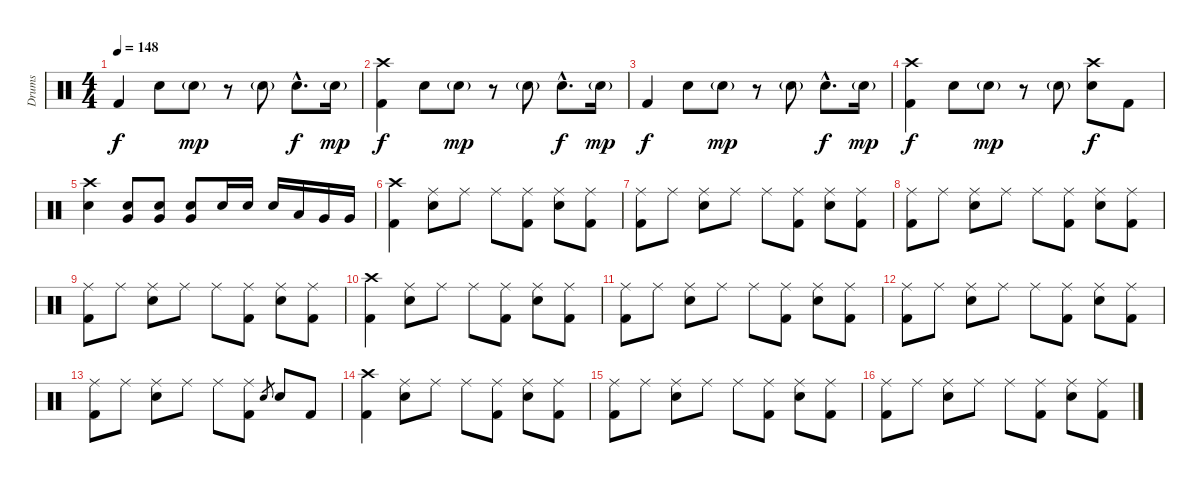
\track ("Drums" "Drums") {instrument percussion}
\staff {score}
\articulation defaults
\ts (4 4)
\tempo 148
\clef neutral
\ks c "Kick (hit) 2".4{dy f} "Electric Snare (hit)".8 "Electric Snare (hit)"{g}.8{dy mp}
r.8 "Electric Snare (hit)"{g}.8 "Electric Snare (hit)"{hac}.8{d dy f} "Electric Snare (hit)"{g}.16{dy mp} |
("Crash high (hit)" "Kick (hit) 2").4{dy f} "Electric Snare (hit)".8 "Electric Snare (hit)"{g}.8{dy mp} r.8 "Electric Snare (hit)"{g}.8 "Electric Snare (hit)"{hac}.8{d dy f} "Electric Snare (hit)"{g}.16{dy mp} |
"Kick (hit) 2".4{dy f} "Electric Snare (hit)".8 "Electric Snare (hit)"{g}.8{dy mp} r.8 "Electric Snare (hit)"{g}.8 "Electric Snare (hit)"{hac}.8{d dy f} "Electric Snare (hit)"{g}.16{dy mp} |
("Crash high (hit)" "Kick (hit) 2").4{dy f} "Electric Snare (hit)".8 "Electric Snare (hit)"{g}.8{dy mp} r.8 "Electric Snare (hit)"{g}.8 ("Crash high (hit)" "Electric Snare (hit)").8{dy f} "Kick (hit) 2".8 |
("Crash high (hit)" "Electric Snare (hit)").4 ("Very Low Tom (hit)" "Electric Snare (hit)").8 ("Very Low Tom (hit)" "Electric Snare (hit)").8 ("Very Low Tom (hit)" "Electric Snare (hit)").8 "Electric Snare (hit)".16 "Electric Snare (hit)".16 "Electric Snare (hit)".16 "Low Tom (hit)".16 "Very Low Tom (hit)".16 "Very Low Tom (hit)".16 |
("Crash high (hit)" "Kick (hit) 2").4 ("Ride (middle)" "Electric Snare (hit)").8 "Ride (middle)".8 "Ride (middle)".8 ("Ride (middle)" "Kick (hit) 2").8 ("Ride (middle)" "Electric Snare (hit)").8 ("Ride (middle)" "Kick (hit) 2").8 |
("Ride (middle)" "Kick (hit) 2").8 "Ride (middle)".8 ("Ride (middle)" "Electric Snare (hit)").8 "Ride (middle)".8 "Ride (middle)".8 ("Ride (middle)" "Kick (hit) 2").8 ("Ride (middle)" "Electric Snare (hit)").8 ("Ride (middle)" "Kick (hit) 2").8 |
("Ride (middle)" "Kick (hit) 2").8 "Ride (middle)".8 ("Ride (middle)" "Electric Snare (hit)").8 "Ride (middle)".8 "Ride (middle)".8 ("Ride (middle)" "Kick (hit) 2").8 ("Ride (middle)" "Electric Snare (hit)").8 ("Ride (middle)" "Kick (hit) 2").8 |
("Ride (middle)" "Kick (hit) 2").8 "Ride (middle)".8 ("Ride (middle)" "Electric Snare (hit)").8 "Ride (middle)".8 "Ride (middle)".8 ("Ride (middle)" "Kick (hit) 2").8 ("Ride (middle)" "Electric Snare (hit)").8 ("Ride (middle)" "Kick (hit) 2").8 |
("Crash high (hit)" "Kick (hit) 2").4 ("Ride (middle)" "Electric Snare (hit)").8 "Ride (middle)".8 "Ride (middle)".8 ("Ride (middle)" "Kick (hit) 2").8 ("Ride (middle)" "Electric Snare (hit)").8 ("Ride (middle)" "Kick (hit) 2").8 |
("Ride (middle)" "Kick (hit) 2").8 "Ride (middle)".8 ("Ride (middle)" "Electric Snare (hit)").8 "Ride (middle)".8 "Ride (middle)".8 ("Ride (middle)" "Kick (hit) 2").8 ("Ride (middle)" "Electric Snare (hit)").8 ("Ride (middle)" "Kick (hit) 2").8 |
("Ride (middle)" "Kick (hit) 2").8 "Ride (middle)".8 ("Ride (middle)" "Electric Snare (hit)").8 "Ride (middle)".8 "Ride (middle)".8 ("Ride (middle)" "Kick (hit) 2").8 ("Ride (middle)" "Electric Snare (hit)").8 ("Ride (middle)" "Kick (hit) 2").8 |
("Ride (middle)" "Kick (hit) 2").8 "Ride (middle)".8 ("Ride (middle)" "Electric Snare (hit)").8 "Ride (middle)".8 "Ride (middle)".8 ("Ride (middle)" "Kick (hit) 2").8 "Electric Snare (hit)".8{gr} "Electric Snare (hit)".8 "Kick (hit) 2".8 |
("Crash high (hit)" "Kick (hit) 2").4 ("Ride (middle)" "Electric Snare (hit)").8 "Ride (middle)".8 "Ride (middle)".8 ("Ride (middle)" "Kick (hit) 2").8 ("Ride (middle)" "Electric Snare (hit)").8 ("Ride (middle)" "Kick (hit) 2").8 |
("Ride (middle)" "Kick (hit) 2").8 "Ride (middle)".8 ("Ride (middle)" "Electric Snare (hit)").8 "Ride (middle)".8 "Ride (middle)".8 ("Ride (middle)" "Kick (hit) 2").8 ("Ride (middle)" "Electric Snare (hit)").8 ("Ride (middle)" "Kick (hit) 2").8 |
("Ride (middle)" "Kick (hit) 2").8 "Ride (middle)".8 ("Ride (middle)" "Electric Snare (hit)").8 "Ride (middle)".8 "Ride (middle)".8 ("Ride (middle)" "Kick (hit) 2").8 ("Ride (middle)" "Electric Snare (hit)").8 ("Ride (middle)" "Kick (hit) 2").8
